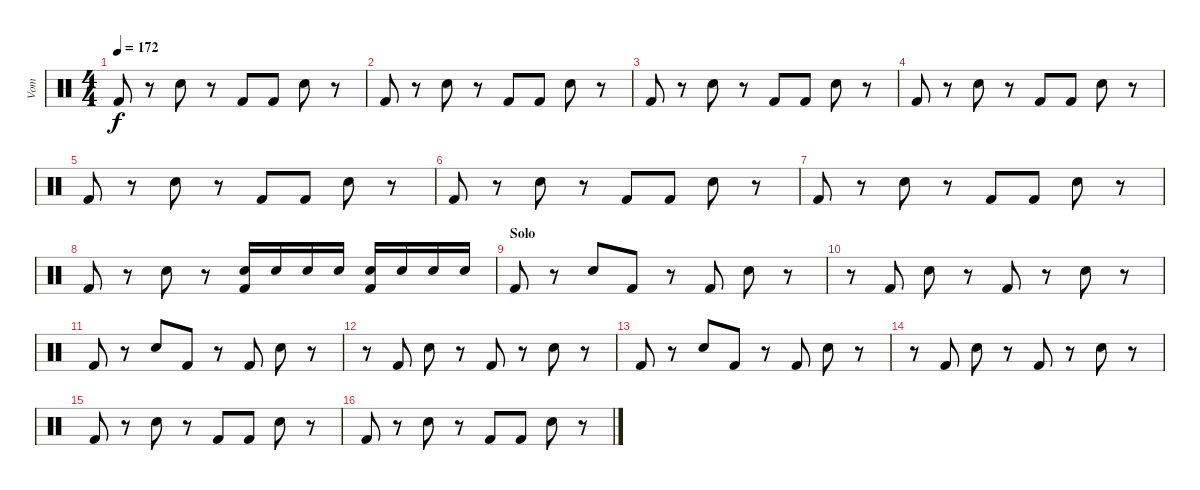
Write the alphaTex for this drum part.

\track ("Vom" "Vom") {instrument percussion}
\staff {score}
\articulation defaults
\ts (4 4)
\tempo 172
\clef neutral
\ks c "Kick (hit) 2".8{dy f}
r.8 "Snare (hit) 2".8 r.8 "Kick (hit) 2".8 "Kick (hit) 2".8 "Snare (hit) 2".8 r.8 |
"Kick (hit) 2".8 r.8 "Snare (hit) 2".8 r.8 "Kick (hit) 2".8 "Kick (hit) 2".8 "Snare (hit) 2".8 r.8 |
"Kick (hit) 2".8 r.8 "Snare (hit) 2".8 r.8 "Kick (hit) 2".8 "Kick (hit) 2".8 "Snare (hit) 2".8 r.8 |
"Kick (hit) 2".8 r.8 "Snare (hit) 2".8 r.8 "Kick (hit) 2".8 "Kick (hit) 2".8 "Snare (hit) 2".8 r.8 |
"Kick (hit) 2".8 r.8 "Snare (hit) 2".8 r.8 "Kick (hit) 2".8 "Kick (hit) 2".8 "Snare (hit) 2".8 r.8 |
"Kick (hit) 2".8 r.8 "Snare (hit) 2".8 r.8 "Kick (hit) 2".8 "Kick (hit) 2".8 "Snare (hit) 2".8 r.8 |
"Kick (hit) 2".8 r.8 "Snare (hit) 2".8 r.8 "Kick (hit) 2".8 "Kick (hit) 2".8 "Snare (hit) 2".8 r.8 |
"Kick (hit) 2".8 r.8 "Snare (hit) 2".8 r.8 ("Snare (hit) 2" "Kick (hit) 2").16 "Snare (hit) 2".16 "Snare (hit) 2".16 "Snare (hit) 2".16 ("Snare (hit) 2" "Kick (hit) 2").16 "Snare (hit) 2".16 "Snare (hit) 2".16 "Snare (hit) 2".16 |
\section ("" "Solo")
"Kick (hit) 2".8 r.8 "Snare (hit) 2".8 "Kick (hit) 2".8 r.8 "Kick (hit) 2".8 "Snare (hit) 2".8 r.8 |
r.8 "Kick (hit) 2".8 "Snare (hit) 2".8 r.8 "Kick (hit) 2".8 r.8 "Snare (hit) 2".8 r.8 |
"Kick (hit) 2".8 r.8 "Snare (hit) 2".8 "Kick (hit) 2".8 r.8 "Kick (hit) 2".8 "Snare (hit) 2".8 r.8 |
r.8 "Kick (hit) 2".8 "Snare (hit) 2".8 r.8 "Kick (hit) 2".8 r.8 "Snare (hit) 2".8 r.8 |
"Kick (hit) 2".8 r.8 "Snare (hit) 2".8 "Kick (hit) 2".8 r.8 "Kick (hit) 2".8 "Snare (hit) 2".8 r.8 |
r.8 "Kick (hit) 2".8 "Snare (hit) 2".8 r.8 "Kick (hit) 2".8 r.8 "Snare (hit) 2".8 r.8 |
"Kick (hit) 2".8 r.8 "Snare (hit) 2".8 r.8 "Kick (hit) 2".8 "Kick (hit) 2".8 "Snare (hit) 2".8 r.8 |
"Kick (hit) 2".8 r.8 "Snare (hit) 2".8 r.8 "Kick (hit) 2".8 "Kick (hit) 2".8 "Snare (hit) 2".8 r.8
